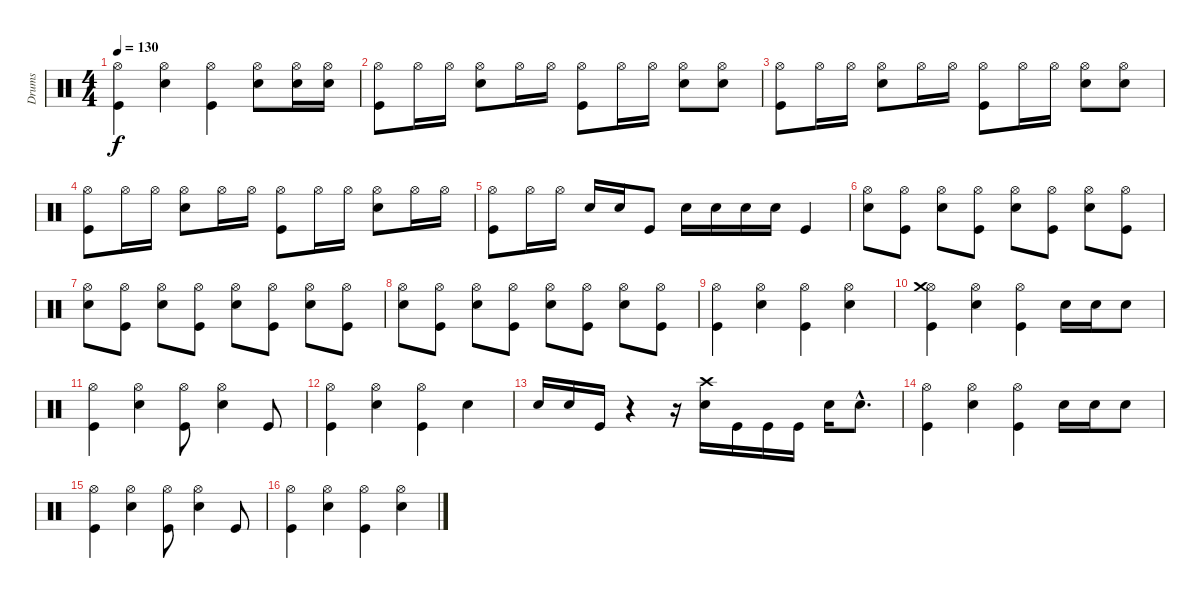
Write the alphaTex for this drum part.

\track ("Drums" "Drums") {instrument percussion}
\staff {score}
\articulation defaults
\ts (4 4)
\tempo 130
\clef neutral
\ks c
("Hi-Hat (open)" "Kick (hit)").4{dy f} ("Hi-Hat (open)" "Snare (hit) 2").4 ("Hi-Hat (open)" "Kick (hit)").4 ("Hi-Hat (open)" "Snare (hit) 2").8 ("Hi-Hat (open)" "Snare (hit) 2").16 ("Hi-Hat (open)" "Snare (hit) 2").16 |
("Hi-Hat (open)" "Kick (hit)").8 "Hi-Hat (open)".16 "Hi-Hat (open)".16 ("Hi-Hat (open)" "Snare (hit) 2").8 "Hi-Hat (open)".16 "Hi-Hat (open)".16 ("Hi-Hat (open)" "Kick (hit)").8 "Hi-Hat (open)".16 "Hi-Hat (open)".16 ("Snare (hit) 2" "Hi-Hat (open)").8 ("Snare (hit) 2" "Hi-Hat (open)").8 |
("Hi-Hat (open)" "Kick (hit)").8 "Hi-Hat (open)".16 "Hi-Hat (open)".16 ("Hi-Hat (open)" "Snare (hit) 2").8 "Hi-Hat (open)".16 "Hi-Hat (open)".16 ("Hi-Hat (open)" "Kick (hit)").8 "Hi-Hat (open)".16 "Hi-Hat (open)".16 ("Snare (hit) 2" "Hi-Hat (open)").8 ("Snare (hit) 2" "Hi-Hat (open)").8 |
("Hi-Hat (open)" "Kick (hit)").8 "Hi-Hat (open)".16 "Hi-Hat (open)".16 ("Hi-Hat (open)" "Snare (hit) 2").8 "Hi-Hat (open)".16 "Hi-Hat (open)".16 ("Hi-Hat (open)" "Kick (hit)").8 "Hi-Hat (open)".16 "Hi-Hat (open)".16 ("Snare (hit) 2" "Hi-Hat (open)").8 "Hi-Hat (open)".16 "Hi-Hat (open)".16 |
("Hi-Hat (open)" "Kick (hit)").8 "Hi-Hat (open)".16 "Hi-Hat (open)".16 "Snare (hit) 2".16 "Snare (hit) 2".16 "Kick (hit)".8 "Snare (hit) 2".16 "Snare (hit) 2".16 "Snare (hit) 2".16 "Snare (hit) 2".16 "Kick (hit)".4 |
("Hi-Hat (open)" "Snare (hit) 2").8 ("Hi-Hat (open)" "Kick (hit)").8 ("Hi-Hat (open)" "Snare (hit) 2").8 ("Hi-Hat (open)" "Kick (hit)").8 ("Hi-Hat (open)" "Snare (hit) 2").8 ("Hi-Hat (open)" "Kick (hit)").8 ("Hi-Hat (open)" "Snare (hit) 2").8 ("Hi-Hat (open)" "Kick (hit)").8 |
("Hi-Hat (open)" "Snare (hit) 2").8 ("Hi-Hat (open)" "Kick (hit)").8 ("Hi-Hat (open)" "Snare (hit) 2").8 ("Hi-Hat (open)" "Kick (hit)").8 ("Hi-Hat (open)" "Snare (hit) 2").8 ("Hi-Hat (open)" "Kick (hit)").8 ("Hi-Hat (open)" "Snare (hit) 2").8 ("Hi-Hat (open)" "Kick (hit)").8 |
("Hi-Hat (open)" "Snare (hit) 2").8 ("Hi-Hat (open)" "Kick (hit)").8 ("Hi-Hat (open)" "Snare (hit) 2").8 ("Hi-Hat (open)" "Kick (hit)").8 ("Hi-Hat (open)" "Snare (hit) 2").8 ("Hi-Hat (open)" "Kick (hit)").8 ("Hi-Hat (open)" "Snare (hit) 2").8 ("Hi-Hat (open)" "Kick (hit)").8 |
("Hi-Hat (open)" "Kick (hit)").4 ("Hi-Hat (open)" "Snare (hit) 2").4 ("Hi-Hat (open)" "Kick (hit)").4 ("Hi-Hat (open)" "Snare (hit) 2").4 |
("Kick (hit)" "Hi-Hat (open)" "Crash medium (hit)").4 ("Snare (hit) 2" "Hi-Hat (open)").4 ("Kick (hit)" "Hi-Hat (open)").4 "Snare (hit) 2".16 "Snare (hit) 2".16 "Snare (hit) 2".8 |
("Hi-Hat (open)" "Kick (hit)").4 ("Hi-Hat (open)" "Snare (hit) 2").4 ("Hi-Hat (open)" "Kick (hit)").8 ("Hi-Hat (open)" "Snare (hit) 2").4 "Kick (hit)".8 |
("Hi-Hat (open)" "Kick (hit)").4 ("Hi-Hat (open)" "Snare (hit) 2").4 ("Hi-Hat (open)" "Kick (hit)").4 "Snare (hit) 2".4 |
"Snare (hit) 2".16 "Snare (hit) 2".16 "Kick (hit)".16 r.4 r.16 ("Crash high (hit)" "Snare (hit) 2").16 "Kick (hit)".16 "Kick (hit)".16 "Kick (hit)".16 "Snare (hit) 2".16 "Snare (hit) 2"{hac}.8{d} |
("Kick (hit)" "Hi-Hat (open)").4 ("Snare (hit) 2" "Hi-Hat (open)").4 ("Kick (hit)" "Hi-Hat (open)").4 "Snare (hit) 2".16 "Snare (hit) 2".16 "Snare (hit) 2".8 |
("Hi-Hat (open)" "Kick (hit)").4 ("Hi-Hat (open)" "Snare (hit) 2").4 ("Hi-Hat (open)" "Kick (hit)").8 ("Hi-Hat (open)" "Snare (hit) 2").4 "Kick (hit)".8 |
("Hi-Hat (open)" "Kick (hit)").4 ("Hi-Hat (open)" "Snare (hit) 2").4 ("Hi-Hat (open)" "Kick (hit)").4 ("Hi-Hat (open)" "Snare (hit) 2").4
